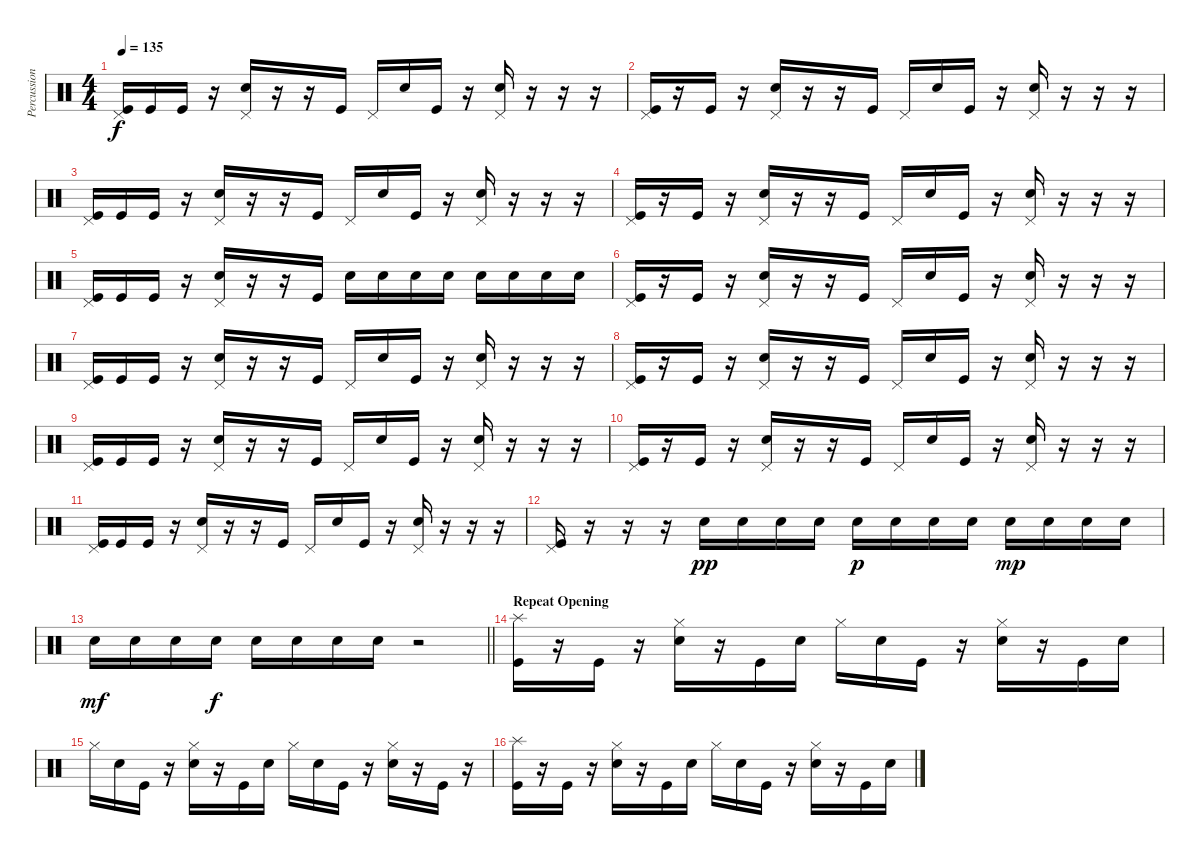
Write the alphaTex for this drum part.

\track ("Percussion" "Percussion") {instrument percussion}
\staff {score}
\articulation defaults
\ts (4 4)
\tempo 135
\clef neutral
\ks c
("Pedal Hi-Hat (hit)" "Kick (hit)").16{dy f} "Kick (hit)".16 "Kick (hit)".16 r.16 ("Pedal Hi-Hat (hit)" "Snare (hit) 2").16 r.16 r.16 "Kick (hit)".16 "Pedal Hi-Hat (hit)".16 "Snare (hit) 2".16 "Kick (hit)".16 r.16 ("Pedal Hi-Hat (hit)" "Snare (hit) 2").16 r.16 r.16 r.16 |
("Pedal Hi-Hat (hit)" "Kick (hit)").16 r.16 "Kick (hit)".16 r.16 ("Pedal Hi-Hat (hit)" "Snare (hit) 2").16 r.16 r.16 "Kick (hit)".16 "Pedal Hi-Hat (hit)".16 "Snare (hit) 2".16 "Kick (hit)".16 r.16 ("Pedal Hi-Hat (hit)" "Snare (hit) 2").16 r.16 r.16 r.16 |
("Pedal Hi-Hat (hit)" "Kick (hit)").16 "Kick (hit)".16 "Kick (hit)".16 r.16 ("Pedal Hi-Hat (hit)" "Snare (hit) 2").16 r.16 r.16 "Kick (hit)".16 "Pedal Hi-Hat (hit)".16 "Snare (hit) 2".16 "Kick (hit)".16 r.16 ("Pedal Hi-Hat (hit)" "Snare (hit) 2").16 r.16 r.16 r.16 |
("Pedal Hi-Hat (hit)" "Kick (hit)").16 r.16 "Kick (hit)".16 r.16 ("Pedal Hi-Hat (hit)" "Snare (hit) 2").16 r.16 r.16 "Kick (hit)".16 "Pedal Hi-Hat (hit)".16 "Snare (hit) 2".16 "Kick (hit)".16 r.16 ("Pedal Hi-Hat (hit)" "Snare (hit) 2").16 r.16 r.16 r.16 |
("Pedal Hi-Hat (hit)" "Kick (hit)").16 "Kick (hit)".16 "Kick (hit)".16 r.16 ("Pedal Hi-Hat (hit)" "Snare (hit) 2").16 r.16 r.16 "Kick (hit)".16 "Snare (hit) 2".16 "Snare (hit) 2".16 "Snare (hit) 2".16 "Snare (hit) 2".16 "Snare (hit) 2".16 "Snare (hit) 2".16 "Snare (hit) 2".16 "Snare (hit) 2".16 |
("Pedal Hi-Hat (hit)" "Kick (hit)").16 r.16 "Kick (hit)".16 r.16 ("Pedal Hi-Hat (hit)" "Snare (hit) 2").16 r.16 r.16 "Kick (hit)".16 "Pedal Hi-Hat (hit)".16 "Snare (hit) 2".16 "Kick (hit)".16 r.16 ("Pedal Hi-Hat (hit)" "Snare (hit) 2").16 r.16 r.16 r.16 |
("Pedal Hi-Hat (hit)" "Kick (hit)").16 "Kick (hit)".16 "Kick (hit)".16 r.16 ("Pedal Hi-Hat (hit)" "Snare (hit) 2").16 r.16 r.16 "Kick (hit)".16 "Pedal Hi-Hat (hit)".16 "Snare (hit) 2".16 "Kick (hit)".16 r.16 ("Pedal Hi-Hat (hit)" "Snare (hit) 2").16 r.16 r.16 r.16 |
("Pedal Hi-Hat (hit)" "Kick (hit)").16 r.16 "Kick (hit)".16 r.16 ("Pedal Hi-Hat (hit)" "Snare (hit) 2").16 r.16 r.16 "Kick (hit)".16 "Pedal Hi-Hat (hit)".16 "Snare (hit) 2".16 "Kick (hit)".16 r.16 ("Pedal Hi-Hat (hit)" "Snare (hit) 2").16 r.16 r.16 r.16 |
("Pedal Hi-Hat (hit)" "Kick (hit)").16 "Kick (hit)".16 "Kick (hit)".16 r.16 ("Pedal Hi-Hat (hit)" "Snare (hit) 2").16 r.16 r.16 "Kick (hit)".16 "Pedal Hi-Hat (hit)".16 "Snare (hit) 2".16 "Kick (hit)".16 r.16 ("Pedal Hi-Hat (hit)" "Snare (hit) 2").16 r.16 r.16 r.16 |
("Pedal Hi-Hat (hit)" "Kick (hit)").16 r.16 "Kick (hit)".16 r.16 ("Pedal Hi-Hat (hit)" "Snare (hit) 2").16 r.16 r.16 "Kick (hit)".16 "Pedal Hi-Hat (hit)".16 "Snare (hit) 2".16 "Kick (hit)".16 r.16 ("Pedal Hi-Hat (hit)" "Snare (hit) 2").16 r.16 r.16 r.16 |
("Pedal Hi-Hat (hit)" "Kick (hit)").16 "Kick (hit)".16 "Kick (hit)".16 r.16 ("Pedal Hi-Hat (hit)" "Snare (hit) 2").16 r.16 r.16 "Kick (hit)".16 "Pedal Hi-Hat (hit)".16 "Snare (hit) 2".16 "Kick (hit)".16 r.16 ("Pedal Hi-Hat (hit)" "Snare (hit) 2").16 r.16 r.16 r.16 |
("Pedal Hi-Hat (hit)" "Kick (hit)").16 r.16 r.16 r.16 "Snare (hit) 2".16{dy pp} "Snare (hit) 2".16 "Snare (hit) 2".16 "Snare (hit) 2".16 "Snare (hit) 2".16{dy p} "Snare (hit) 2".16 "Snare (hit) 2".16 "Snare (hit) 2".16 "Snare (hit) 2".16{dy mp} "Snare (hit) 2".16 "Snare (hit) 2".16 "Snare (hit) 2".16 |
\barLineRight lightlight "Snare (hit) 2".16{dy mf} "Snare (hit) 2".16 "Snare (hit) 2".16 "Snare (hit) 2".16{dy f} "Snare (hit) 2".16 "Snare (hit) 2".16 "Snare (hit) 2".16 "Snare (hit) 2".16
r.2 |
\section ("" "Repeat Opening")
("Splash (hit)" "Kick (hit)").16 r.16 "Kick (hit)".16 r.16 ("Hi-Hat (closed)" "Snare (hit) 2").16 r.16 "Kick (hit)".16 "Snare (hit) 2".16 "Hi-Hat (closed)".16 "Snare (hit) 2".16 "Kick (hit)".16 r.16 ("Hi-Hat (closed)" "Snare (hit) 2").16 r.16 "Kick (hit)".16 "Snare (hit) 2".16 |
"Hi-Hat (closed)".16 "Snare (hit) 2".16 "Kick (hit)".16 r.16 ("Hi-Hat (closed)" "Snare (hit) 2").16 r.16 "Kick (hit)".16 "Snare (hit) 2".16 "Hi-Hat (closed)".16 "Snare (hit) 2".16 "Kick (hit)".16 r.16 ("Hi-Hat (closed)" "Snare (hit) 2").16 r.16 "Kick (hit)".16 r.16 |
("Splash (hit)" "Kick (hit)").16 r.16 "Kick (hit)".16 r.16 ("Hi-Hat (closed)" "Snare (hit) 2").16 r.16 "Kick (hit)".16 "Snare (hit) 2".16 "Hi-Hat (closed)".16 "Snare (hit) 2".16 "Kick (hit)".16 r.16 ("Hi-Hat (closed)" "Snare (hit) 2").16 r.16 "Kick (hit)".16 "Snare (hit) 2".16
